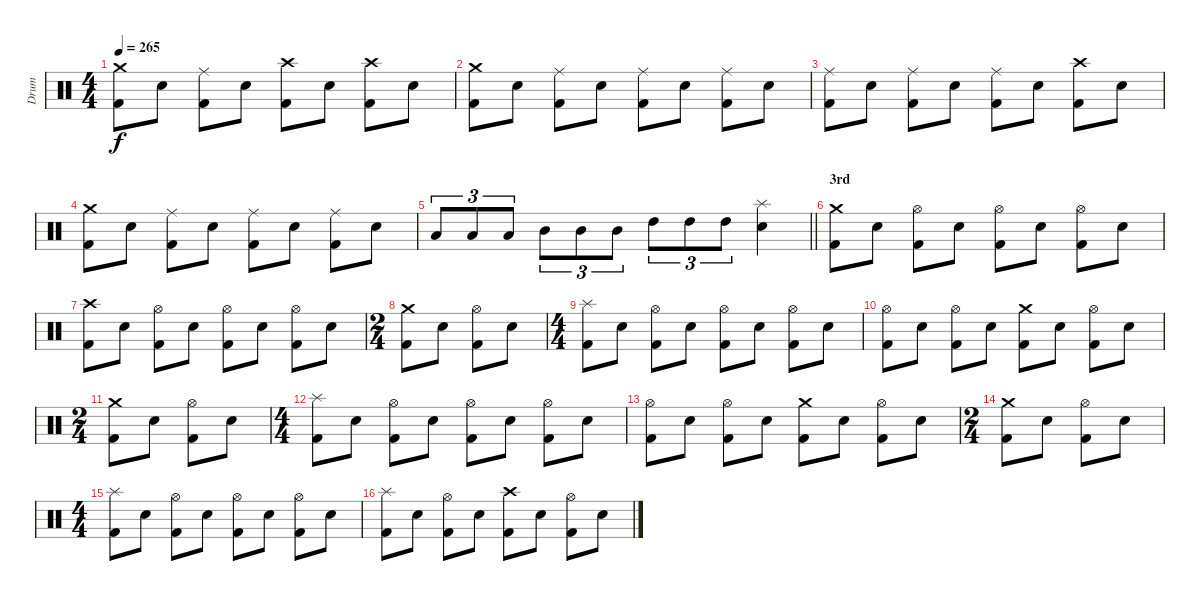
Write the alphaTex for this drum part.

\track ("Drum" "Drum") {instrument percussion}
\staff {score}
\articulation defaults
\ts (4 4)
\tempo 265
\clef neutral
\ks c
("Crash medium (hit)" "Kick (hit) 2").8{dy f} "Snare (hit) 2".8 ("Ride (middle)" "Kick (hit) 2").8 "Snare (hit) 2".8 ("Crash high (hit)" "Kick (hit) 2").8 "Snare (hit) 2".8 ("Crash high (hit)" "Kick (hit) 2").8 "Snare (hit) 2".8 |
("Crash medium (hit)" "Kick (hit) 2").8 "Snare (hit) 2".8 ("Ride (middle)" "Kick (hit) 2").8 "Snare (hit) 2".8 ("Ride (middle)" "Kick (hit) 2").8 "Snare (hit) 2".8 ("Ride (middle)" "Kick (hit) 2").8 "Snare (hit) 2".8 |
("Ride (middle)" "Kick (hit) 2").8 "Snare (hit) 2".8 ("Ride (middle)" "Kick (hit) 2").8 "Snare (hit) 2".8 ("Ride (middle)" "Kick (hit) 2").8 "Snare (hit) 2".8 ("Crash high (hit)" "Kick (hit) 2").8 "Snare (hit) 2".8 |
("Crash medium (hit)" "Kick (hit) 2").8 "Snare (hit) 2".8 ("Ride (middle)" "Kick (hit) 2").8 "Snare (hit) 2".8 ("Ride (middle)" "Kick (hit) 2").8 "Snare (hit) 2".8 ("Ride (middle)" "Kick (hit) 2").8 "Snare (hit) 2".8 |
\barLineRight lightlight "Low Tom (hit)".8{tu (3 2)} "Low Tom (hit)".8{tu (3 2)} "Low Tom (hit)".8{tu (3 2)} "Mid Tom (hit)".8{tu (3 2)} "Mid Tom (hit)".8{tu (3 2)} "Mid Tom (hit)".8{tu (3 2)} "High Tom (hit)".8{tu (3 2)} "High Tom (hit)".8{tu (3 2)} "High Tom (hit)".8{tu (3 2)}
("Splash (hit)" "Snare (hit) 2").4 |
\section ("" "3rd")
("Crash medium (hit)" "Kick (hit) 2").8 "Snare (hit) 2".8 ("Hi-Hat (open)" "Kick (hit) 2").8 "Snare (hit) 2".8 ("Hi-Hat (open)" "Kick (hit) 2").8 "Snare (hit) 2".8 ("Hi-Hat (open)" "Kick (hit) 2").8 "Snare (hit) 2".8 |
("Crash high (hit)" "Kick (hit) 2").8 "Snare (hit) 2".8 ("Hi-Hat (open)" "Kick (hit) 2").8 "Snare (hit) 2".8 ("Hi-Hat (open)" "Kick (hit) 2").8 "Snare (hit) 2".8 ("Hi-Hat (open)" "Kick (hit) 2").8 "Snare (hit) 2".8 |
\ts (2 4)
("Crash medium (hit)" "Kick (hit) 2").8 "Snare (hit) 2".8 ("Hi-Hat (open)" "Kick (hit) 2").8 "Snare (hit) 2".8 |
\ts (4 4)
("Splash (hit)" "Kick (hit) 2").8 "Snare (hit) 2".8 ("Hi-Hat (open)" "Kick (hit) 2").8 "Snare (hit) 2".8 ("Hi-Hat (open)" "Kick (hit) 2").8 "Snare (hit) 2".8 ("Hi-Hat (open)" "Kick (hit) 2").8 "Snare (hit) 2".8 |
("Hi-Hat (open)" "Kick (hit) 2").8 "Snare (hit) 2".8 ("Hi-Hat (open)" "Kick (hit) 2").8 "Snare (hit) 2".8 ("Crash medium (hit)" "Kick (hit) 2").8 "Snare (hit) 2".8 ("Hi-Hat (open)" "Kick (hit) 2").8 "Snare (hit) 2".8 |
\ts (2 4)
("Crash medium (hit)" "Kick (hit) 2").8 "Snare (hit) 2".8 ("Hi-Hat (open)" "Kick (hit) 2").8 "Snare (hit) 2".8 |
\ts (4 4)
("Splash (hit)" "Kick (hit) 2").8 "Snare (hit) 2".8 ("Hi-Hat (open)" "Kick (hit) 2").8 "Snare (hit) 2".8 ("Hi-Hat (open)" "Kick (hit) 2").8 "Snare (hit) 2".8 ("Hi-Hat (open)" "Kick (hit) 2").8 "Snare (hit) 2".8 |
("Hi-Hat (open)" "Kick (hit) 2").8 "Snare (hit) 2".8 ("Hi-Hat (open)" "Kick (hit) 2").8 "Snare (hit) 2".8 ("Crash medium (hit)" "Kick (hit) 2").8 "Snare (hit) 2".8 ("Hi-Hat (open)" "Kick (hit) 2").8 "Snare (hit) 2".8 |
\ts (2 4)
("Crash medium (hit)" "Kick (hit) 2").8 "Snare (hit) 2".8 ("Hi-Hat (open)" "Kick (hit) 2").8 "Snare (hit) 2".8 |
\ts (4 4)
("Splash (hit)" "Kick (hit) 2").8 "Snare (hit) 2".8 ("Hi-Hat (open)" "Kick (hit) 2").8 "Snare (hit) 2".8 ("Hi-Hat (open)" "Kick (hit) 2").8 "Snare (hit) 2".8 ("Hi-Hat (open)" "Kick (hit) 2").8 "Snare (hit) 2".8 |
("Splash (hit)" "Kick (hit) 2").8 "Snare (hit) 2".8 ("Hi-Hat (open)" "Kick (hit) 2").8 "Snare (hit) 2".8 ("Crash high (hit)" "Kick (hit) 2").8 "Snare (hit) 2".8 ("Hi-Hat (open)" "Kick (hit) 2").8 "Snare (hit) 2".8
